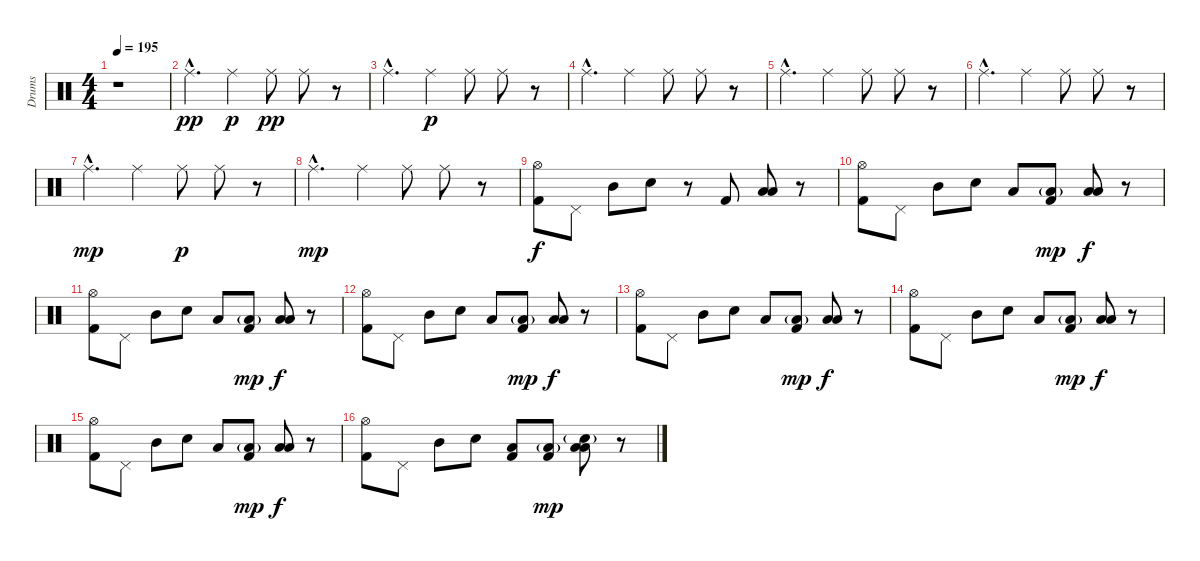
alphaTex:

\track ("Drums" "Drums") {instrument percussion}
\staff {score}
\articulation defaults
\ts (4 4)
\tempo 195
\clef neutral
\ks c
r.1{dy pp} |
"Ride (middle)"{hac}.4{d} "Ride (middle)".4{dy p} "Ride (middle)".8{dy pp} "Ride (middle)".8 r.8 |
"Ride (middle)"{hac}.4{d} "Ride (middle)".4{dy p} "Ride (middle)".8 "Ride (middle)".8 r.8 |
"Ride (middle)"{hac}.4{d} "Ride (middle)".4 "Ride (middle)".8 "Ride (middle)".8 r.8 |
"Ride (middle)"{hac}.4{d} "Ride (middle)".4 "Ride (middle)".8 "Ride (middle)".8 r.8 |
"Ride (middle)"{hac}.4{d} "Ride (middle)".4 "Ride (middle)".8 "Ride (middle)".8 r.8 |
"Ride (middle)"{hac}.4{d dy mp} "Ride (middle)".4 "Ride (middle)".8{dy p} "Ride (middle)".8 r.8 |
"Ride (middle)"{hac}.4{d dy mp} "Ride (middle)".4 "Ride (middle)".8 "Ride (middle)".8 r.8 |
("Hi-Hat (open)" "Kick (hit) 2").8{dy f} "Pedal Hi-Hat (hit)".8 "Mid Tom (hit)".8 "Electric Snare (hit)".8 r.8 "Kick (hit) 2".8 ("Low Tom (hit)" "Low Floor Tom (hit)").8 r.8 |
("Hi-Hat (open)" "Kick (hit) 2").8 "Pedal Hi-Hat (hit)".8 "Mid Tom (hit)".8 "Electric Snare (hit)".8 "Low Tom (hit)".8 ("Low Tom (hit)"{g} "Kick (hit) 2").8{dy mp} ("Low Tom (hit)" "Low Floor Tom (hit)").8{dy f} r.8 |
("Hi-Hat (open)" "Kick (hit) 2").8 "Pedal Hi-Hat (hit)".8 "Mid Tom (hit)".8 "Electric Snare (hit)".8 "Low Tom (hit)".8 ("Low Tom (hit)"{g} "Kick (hit) 2").8{dy mp} ("Low Tom (hit)" "Low Floor Tom (hit)").8{dy f} r.8 |
("Hi-Hat (open)" "Kick (hit) 2").8 "Pedal Hi-Hat (hit)".8 "Mid Tom (hit)".8 "Electric Snare (hit)".8 "Low Tom (hit)".8 ("Low Tom (hit)"{g} "Kick (hit) 2").8{dy mp} ("Low Tom (hit)" "Low Floor Tom (hit)").8{dy f} r.8 |
("Hi-Hat (open)" "Kick (hit) 2").8 "Pedal Hi-Hat (hit)".8 "Mid Tom (hit)".8 "Electric Snare (hit)".8 "Low Tom (hit)".8 ("Low Tom (hit)"{g} "Kick (hit) 2").8{dy mp} ("Low Tom (hit)" "Low Floor Tom (hit)").8{dy f} r.8 |
("Hi-Hat (open)" "Kick (hit) 2").8 "Pedal Hi-Hat (hit)".8 "Mid Tom (hit)".8 "Electric Snare (hit)".8 "Low Tom (hit)".8 ("Low Tom (hit)"{g} "Kick (hit) 2").8{dy mp} ("Low Tom (hit)" "Low Floor Tom (hit)").8{dy f} r.8 |
("Hi-Hat (open)" "Kick (hit) 2").8 "Pedal Hi-Hat (hit)".8 "Mid Tom (hit)".8 "Electric Snare (hit)".8 "Low Tom (hit)".8 ("Low Tom (hit)"{g} "Kick (hit) 2").8{dy mp} ("Low Tom (hit)" "Low Floor Tom (hit)").8{dy f} r.8 |
("Hi-Hat (open)" "Kick (hit) 2").8 "Pedal Hi-Hat (hit)".8 "Mid Tom (hit)".8 "Electric Snare (hit)".8 ("Low Tom (hit)" "Kick (hit) 2").8 ("Low Tom (hit)"{g} "Kick (hit) 2").8{dy mp} ("Low Floor Tom (hit)" "Low Tom (hit)" "Electric Snare (hit)"{g}).8 r.8
